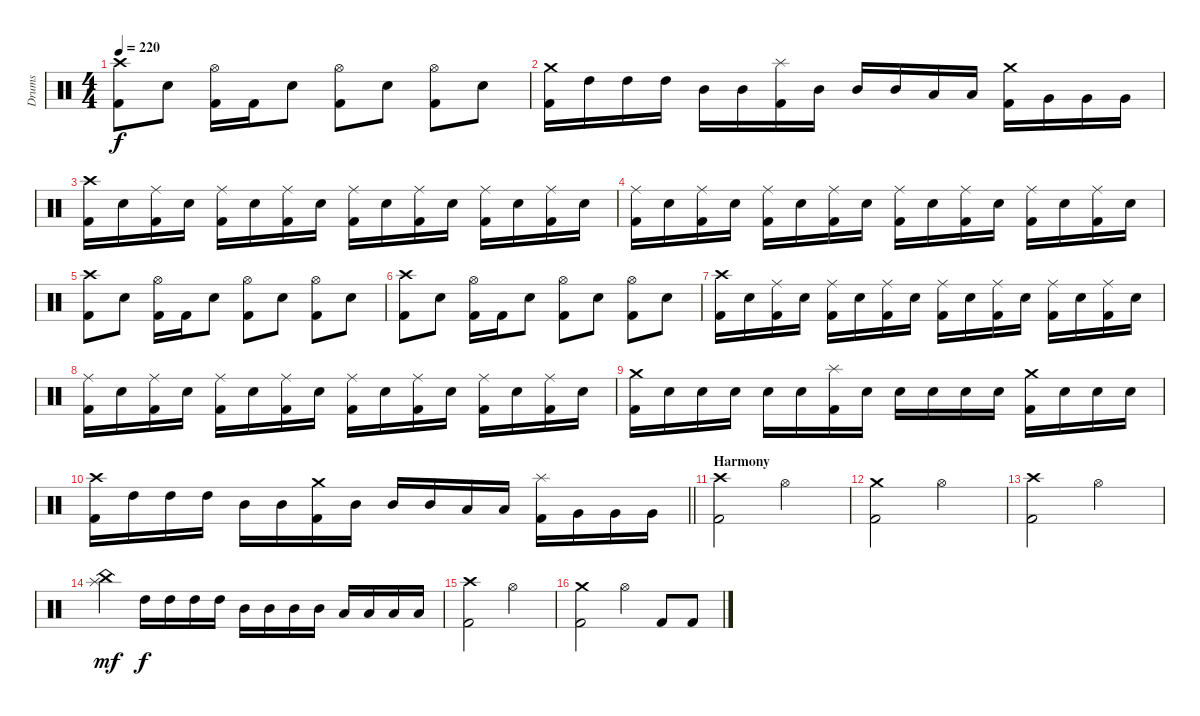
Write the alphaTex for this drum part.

\track ("Drums" "Drums") {instrument percussion}
\staff {score}
\articulation defaults
\ts (4 4)
\tempo 220
\clef neutral
\ks c
("Crash high (hit)" "Kick (hit) 2").8{dy f} "Electric Snare (hit)".8 ("Hi-Hat (open)" "Kick (hit) 2").16 "Kick (hit) 2".16 "Electric Snare (hit)".8 ("Hi-Hat (open)" "Kick (hit) 2").8 "Electric Snare (hit)".8 ("Hi-Hat (open)" "Kick (hit) 2").8 "Electric Snare (hit)".8 |
("Crash medium (hit)" "Kick (hit) 2").16 "High Tom (hit)".16 "High Tom (hit)".16 "High Tom (hit)".16 "Mid Tom (hit)".16 "Mid Tom (hit)".16 ("Splash (hit)" "Kick (hit) 2").16 "Mid Tom (hit)".16 "Mid Tom (hit)".16 "Mid Tom (hit)".16 "Low Tom (hit)".16 "Low Tom (hit)".16 ("Crash medium (hit)" "Kick (hit) 2").16 "Very Low Tom (hit)".16 "Very Low Tom (hit)".16 "Very Low Tom (hit)".16 |
("Crash high (hit)" "Kick (hit) 2").16 "Electric Snare (hit)".16 ("Ride (middle)" "Kick (hit) 2").16 "Electric Snare (hit)".16 ("Ride (middle)" "Kick (hit) 2").16 "Electric Snare (hit)".16 ("Ride (middle)" "Kick (hit) 2").16 "Electric Snare (hit)".16 ("Ride (middle)" "Kick (hit) 2").16 "Electric Snare (hit)".16 ("Ride (middle)" "Kick (hit) 2").16 "Electric Snare (hit)".16 ("Ride (middle)" "Kick (hit) 2").16 "Electric Snare (hit)".16 ("Ride (middle)" "Kick (hit) 2").16 "Electric Snare (hit)".16 |
("Ride (middle)" "Kick (hit) 2").16 "Electric Snare (hit)".16 ("Ride (middle)" "Kick (hit) 2").16 "Electric Snare (hit)".16 ("Ride (middle)" "Kick (hit) 2").16 "Electric Snare (hit)".16 ("Ride (middle)" "Kick (hit) 2").16 "Electric Snare (hit)".16 ("Ride (middle)" "Kick (hit) 2").16 "Electric Snare (hit)".16 ("Ride (middle)" "Kick (hit) 2").16 "Electric Snare (hit)".16 ("Ride (middle)" "Kick (hit) 2").16 "Electric Snare (hit)".16 ("Ride (middle)" "Kick (hit) 2").16 "Electric Snare (hit)".16 |
("Crash high (hit)" "Kick (hit) 2").8 "Electric Snare (hit)".8 ("Hi-Hat (open)" "Kick (hit) 2").16 "Kick (hit) 2".16 "Electric Snare (hit)".8 ("Hi-Hat (open)" "Kick (hit) 2").8 "Electric Snare (hit)".8 ("Hi-Hat (open)" "Kick (hit) 2").8 "Electric Snare (hit)".8 |
("Crash high (hit)" "Kick (hit) 2").8 "Electric Snare (hit)".8 ("Hi-Hat (open)" "Kick (hit) 2").16 "Kick (hit) 2".16 "Electric Snare (hit)".8 ("Hi-Hat (open)" "Kick (hit) 2").8 "Electric Snare (hit)".8 ("Hi-Hat (open)" "Kick (hit) 2").8 "Electric Snare (hit)".8 |
("Crash high (hit)" "Kick (hit) 2").16 "Electric Snare (hit)".16 ("Ride (middle)" "Kick (hit) 2").16 "Electric Snare (hit)".16 ("Ride (middle)" "Kick (hit) 2").16 "Electric Snare (hit)".16 ("Ride (middle)" "Kick (hit) 2").16 "Electric Snare (hit)".16 ("Ride (middle)" "Kick (hit) 2").16 "Electric Snare (hit)".16 ("Ride (middle)" "Kick (hit) 2").16 "Electric Snare (hit)".16 ("Ride (middle)" "Kick (hit) 2").16 "Electric Snare (hit)".16 ("Ride (middle)" "Kick (hit) 2").16 "Electric Snare (hit)".16 |
("Ride (middle)" "Kick (hit) 2").16 "Electric Snare (hit)".16 ("Ride (middle)" "Kick (hit) 2").16 "Electric Snare (hit)".16 ("Ride (middle)" "Kick (hit) 2").16 "Electric Snare (hit)".16 ("Ride (middle)" "Kick (hit) 2").16 "Electric Snare (hit)".16 ("Ride (middle)" "Kick (hit) 2").16 "Electric Snare (hit)".16 ("Ride (middle)" "Kick (hit) 2").16 "Electric Snare (hit)".16 ("Ride (middle)" "Kick (hit) 2").16 "Electric Snare (hit)".16 ("Ride (middle)" "Kick (hit) 2").16 "Electric Snare (hit)".16 |
("Crash medium (hit)" "Kick (hit) 2").16 "Electric Snare (hit)".16 "Electric Snare (hit)".16 "Electric Snare (hit)".16 "Electric Snare (hit)".16 "Electric Snare (hit)".16 ("Splash (hit)" "Kick (hit) 2").16 "Electric Snare (hit)".16 "Electric Snare (hit)".16 "Electric Snare (hit)".16 "Electric Snare (hit)".16 "Electric Snare (hit)".16 ("Crash medium (hit)" "Kick (hit) 2").16 "Electric Snare (hit)".16 "Electric Snare (hit)".16 "Electric Snare (hit)".16 |
\barLineRight lightlight
("Crash high (hit)" "Kick (hit) 2").16 "High Tom (hit)".16 "High Tom (hit)".16 "High Tom (hit)".16 "Mid Tom (hit)".16 "Mid Tom (hit)".16 ("Crash medium (hit)" "Kick (hit) 2").16 "Mid Tom (hit)".16 "Mid Tom (hit)".16 "Mid Tom (hit)".16 "Low Tom (hit)".16 "Low Tom (hit)".16 ("Splash (hit)" "Kick (hit) 2").16 "Very Low Tom (hit)".16 "Very Low Tom (hit)".16 "Very Low Tom (hit)".16 |
\section ("" "Harmony")
("Crash high (hit)" "Kick (hit) 2").2 "Hi-Hat (open)".2 |
("Crash medium (hit)" "Kick (hit) 2").2 "Hi-Hat (open)".2 |
("Crash high (hit)" "Kick (hit) 2").2 "Hi-Hat (open)".2 |
("China (hit)" "Splash (hit)").4{dy mf} "High Tom (hit)".16{dy f} "High Tom (hit)".16 "High Tom (hit)".16 "High Tom (hit)".16 "Mid Tom (hit)".16 "Mid Tom (hit)".16 "Mid Tom (hit)".16 "Mid Tom (hit)".16 "Low Tom (hit)".16 "Low Tom (hit)".16 "Low Tom (hit)".16 "Low Tom (hit)".16 |
("Crash high (hit)" "Kick (hit) 2").2 "Hi-Hat (open)".2 |
("Crash medium (hit)" "Kick (hit) 2").2 "Hi-Hat (open)".4 "Kick (hit) 2".8 "Kick (hit) 2".8
